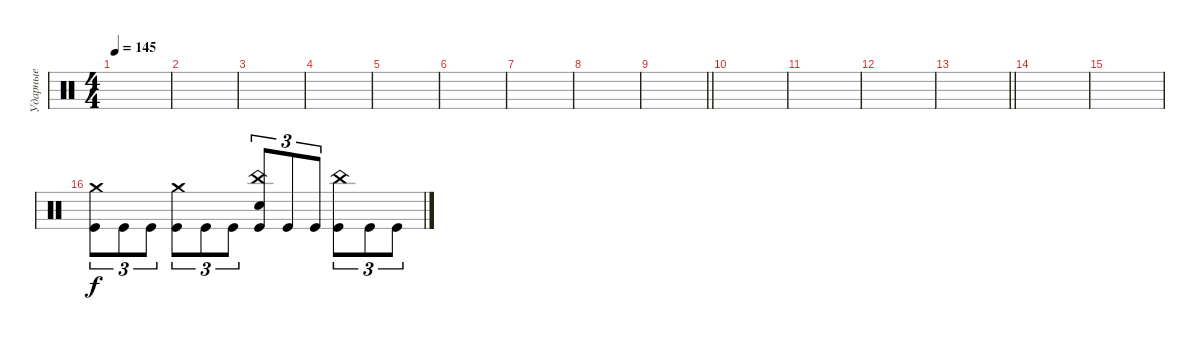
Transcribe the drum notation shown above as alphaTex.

\track ("Ударные" "Ударные") {instrument percussion}
\staff {score}
\articulation defaults
\ts (4 4)
\tempo 145
\clef neutral
\ks c
|
|
|
|
|
|
|
|
\barLineRight lightlight
|
\section ("" " ")
|
|
|
\barLineRight lightlight
|
\section ("" " ")
|
|
("Crash medium (hit)" "Kick (hit)").8{tu (3 2)} "Kick (hit)".8{tu (3 2)} "Kick (hit)".8{tu (3 2)} ("Crash medium (hit)" "Kick (hit)").8{tu (3 2)} "Kick (hit)".8{tu (3 2)} "Kick (hit)".8{tu (3 2)} ("China (hit)" "Electric Snare (hit)" "Kick (hit)").8{tu (3 2)} "Kick (hit)".8{tu (3 2)} "Kick (hit)".8{tu (3 2)} ("China (hit)" "Kick (hit)").8{tu (3 2)} "Kick (hit)".8{tu (3 2)} "Kick (hit)".8{tu (3 2)}
